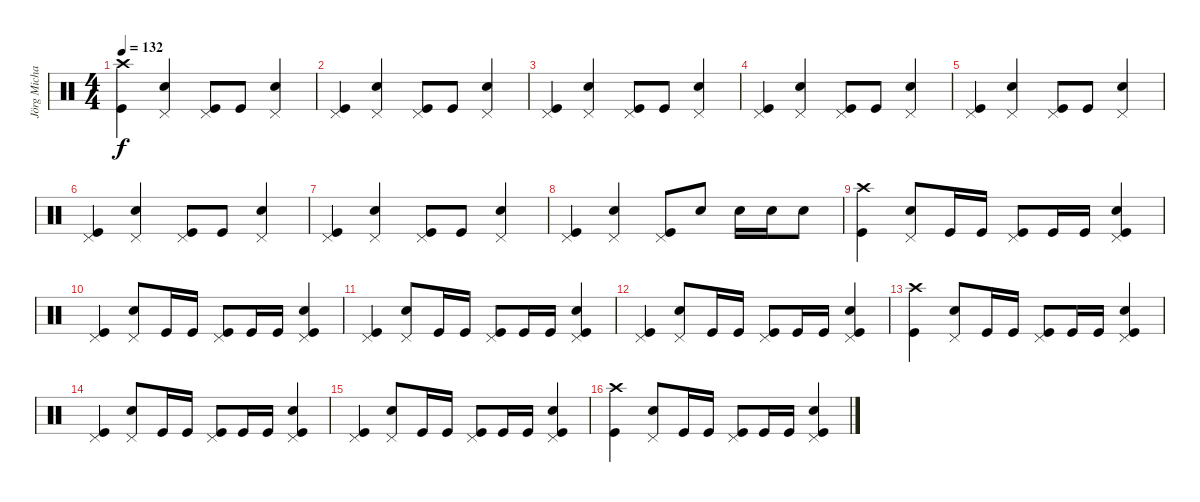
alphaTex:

\track ("Jörg Michael (Drums)" "Jörg Micha") {instrument percussion}
\staff {score}
\articulation defaults
\ts (4 4)
\tempo 132
\clef neutral
\ks c
("Crash high (hit)" "Kick (hit)").4{dy f} ("Pedal Hi-Hat (hit)" "Snare (hit) 2").4 ("Pedal Hi-Hat (hit)" "Kick (hit)").8 "Kick (hit)".8 ("Pedal Hi-Hat (hit)" "Snare (hit) 2").4 |
("Pedal Hi-Hat (hit)" "Kick (hit)").4 ("Pedal Hi-Hat (hit)" "Snare (hit) 2").4 ("Pedal Hi-Hat (hit)" "Kick (hit)").8 "Kick (hit)".8 ("Pedal Hi-Hat (hit)" "Snare (hit) 2").4 |
("Pedal Hi-Hat (hit)" "Kick (hit)").4 ("Pedal Hi-Hat (hit)" "Snare (hit) 2").4 ("Pedal Hi-Hat (hit)" "Kick (hit)").8 "Kick (hit)".8 ("Pedal Hi-Hat (hit)" "Snare (hit) 2").4 |
("Pedal Hi-Hat (hit)" "Kick (hit)").4 ("Pedal Hi-Hat (hit)" "Snare (hit) 2").4 ("Pedal Hi-Hat (hit)" "Kick (hit)").8 "Kick (hit)".8 ("Pedal Hi-Hat (hit)" "Snare (hit) 2").4 |
("Pedal Hi-Hat (hit)" "Kick (hit)").4 ("Pedal Hi-Hat (hit)" "Snare (hit) 2").4 ("Pedal Hi-Hat (hit)" "Kick (hit)").8 "Kick (hit)".8 ("Pedal Hi-Hat (hit)" "Snare (hit) 2").4 |
("Pedal Hi-Hat (hit)" "Kick (hit)").4 ("Pedal Hi-Hat (hit)" "Snare (hit) 2").4 ("Pedal Hi-Hat (hit)" "Kick (hit)").8 "Kick (hit)".8 ("Pedal Hi-Hat (hit)" "Snare (hit) 2").4 |
("Pedal Hi-Hat (hit)" "Kick (hit)").4 ("Pedal Hi-Hat (hit)" "Snare (hit) 2").4 ("Pedal Hi-Hat (hit)" "Kick (hit)").8 "Kick (hit)".8 ("Pedal Hi-Hat (hit)" "Snare (hit) 2").4 |
("Pedal Hi-Hat (hit)" "Kick (hit)").4 ("Pedal Hi-Hat (hit)" "Snare (hit) 2").4 ("Pedal Hi-Hat (hit)" "Kick (hit)").8 "Snare (hit) 2".8 "Snare (hit) 2".16 "Snare (hit) 2".16 "Snare (hit) 2".8 |
("Crash high (hit)" "Kick (hit)").4 ("Pedal Hi-Hat (hit)" "Snare (hit) 2").8 "Kick (hit)".16 "Kick (hit)".16 ("Pedal Hi-Hat (hit)" "Kick (hit)").8 "Kick (hit)".16 "Kick (hit)".16 ("Pedal Hi-Hat (hit)" "Kick (hit)" "Snare (hit) 2").4 |
("Pedal Hi-Hat (hit)" "Kick (hit)").4 ("Pedal Hi-Hat (hit)" "Snare (hit) 2").8 "Kick (hit)".16 "Kick (hit)".16 ("Pedal Hi-Hat (hit)" "Kick (hit)").8 "Kick (hit)".16 "Kick (hit)".16 ("Pedal Hi-Hat (hit)" "Kick (hit)" "Snare (hit) 2").4 |
("Pedal Hi-Hat (hit)" "Kick (hit)").4 ("Pedal Hi-Hat (hit)" "Snare (hit) 2").8 "Kick (hit)".16 "Kick (hit)".16 ("Pedal Hi-Hat (hit)" "Kick (hit)").8 "Kick (hit)".16 "Kick (hit)".16 ("Pedal Hi-Hat (hit)" "Kick (hit)" "Snare (hit) 2").4 |
("Pedal Hi-Hat (hit)" "Kick (hit)").4 ("Pedal Hi-Hat (hit)" "Snare (hit) 2").8 "Kick (hit)".16 "Kick (hit)".16 ("Pedal Hi-Hat (hit)" "Kick (hit)").8 "Kick (hit)".16 "Kick (hit)".16 ("Pedal Hi-Hat (hit)" "Kick (hit)" "Snare (hit) 2").4 |
("Crash high (hit)" "Kick (hit)").4 ("Pedal Hi-Hat (hit)" "Snare (hit) 2").8 "Kick (hit)".16 "Kick (hit)".16 ("Pedal Hi-Hat (hit)" "Kick (hit)").8 "Kick (hit)".16 "Kick (hit)".16 ("Pedal Hi-Hat (hit)" "Kick (hit)" "Snare (hit) 2").4 |
("Pedal Hi-Hat (hit)" "Kick (hit)").4 ("Pedal Hi-Hat (hit)" "Snare (hit) 2").8 "Kick (hit)".16 "Kick (hit)".16 ("Pedal Hi-Hat (hit)" "Kick (hit)").8 "Kick (hit)".16 "Kick (hit)".16 ("Pedal Hi-Hat (hit)" "Kick (hit)" "Snare (hit) 2").4 |
("Pedal Hi-Hat (hit)" "Kick (hit)").4 ("Pedal Hi-Hat (hit)" "Snare (hit) 2").8 "Kick (hit)".16 "Kick (hit)".16 ("Pedal Hi-Hat (hit)" "Kick (hit)").8 "Kick (hit)".16 "Kick (hit)".16 ("Pedal Hi-Hat (hit)" "Kick (hit)" "Snare (hit) 2").4 |
("Crash high (hit)" "Kick (hit)").4 ("Pedal Hi-Hat (hit)" "Snare (hit) 2").8 "Kick (hit)".16 "Kick (hit)".16 ("Pedal Hi-Hat (hit)" "Kick (hit)").8 "Kick (hit)".16 "Kick (hit)".16 ("Pedal Hi-Hat (hit)" "Kick (hit)" "Snare (hit) 2").4
